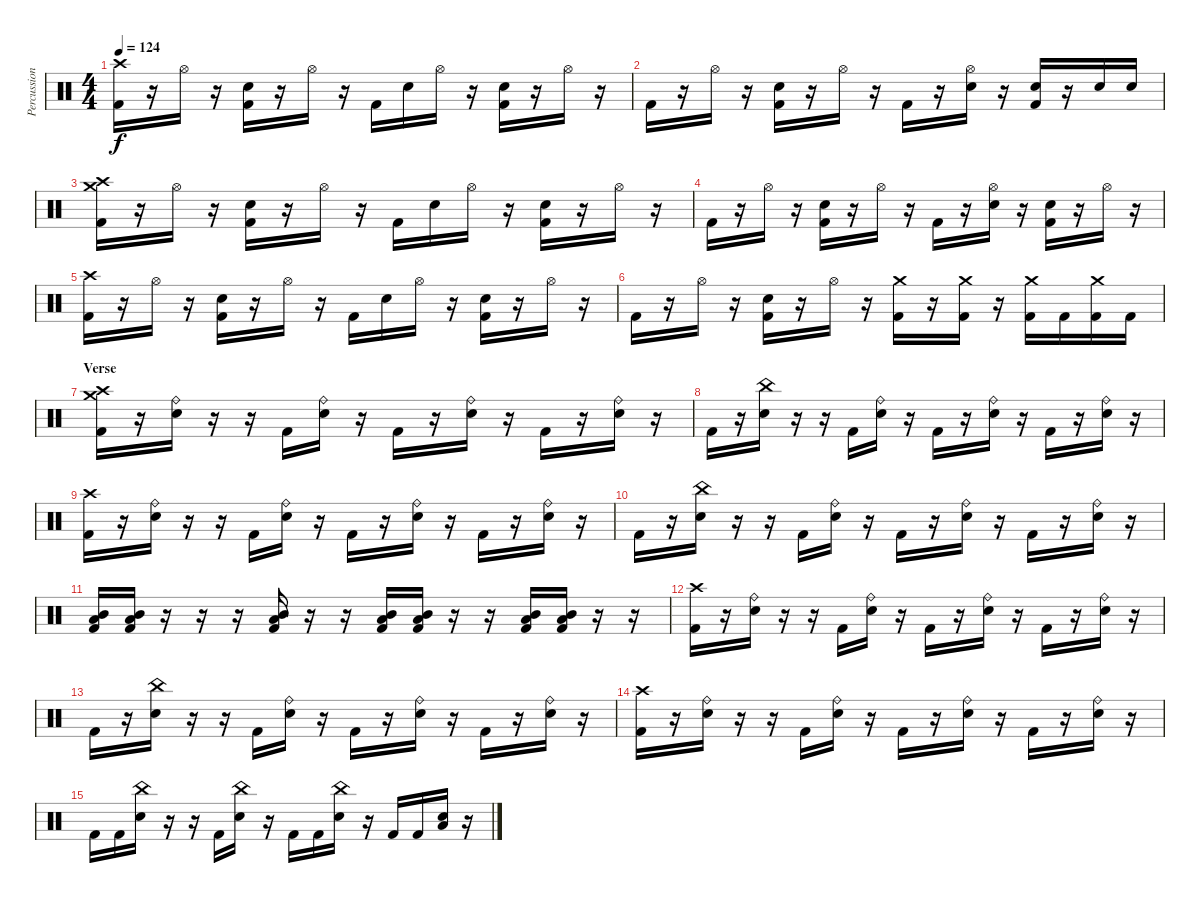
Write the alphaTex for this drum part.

\track ("Percussion" "Percussion") {instrument percussion}
\staff {score}
\articulation defaults
\ts (4 4)
\tempo 124
\clef neutral
\ks c
("Crash high (hit)" "Kick (hit) 2").16{dy f} r.16 "Hi-Hat (open)".16 r.16 ("Snare (hit) 2" "Kick (hit) 2").16 r.16 "Hi-Hat (open)".16 r.16 "Kick (hit) 2".16 "Snare (hit) 2".16 "Hi-Hat (open)".16 r.16 ("Snare (hit) 2" "Kick (hit) 2").16 r.16 "Hi-Hat (open)".16 r.16 |
"Kick (hit) 2".16 r.16 "Hi-Hat (open)".16 r.16 ("Snare (hit) 2" "Kick (hit) 2").16 r.16 "Hi-Hat (open)".16 r.16 "Kick (hit) 2".16 r.16 ("Hi-Hat (open)" "Snare (hit) 2").16 r.16 ("Snare (hit) 2" "Kick (hit) 2").16 r.16 "Snare (hit) 2".16 "Snare (hit) 2".16 |
("Crash high (hit)" "Crash medium (hit)" "Kick (hit) 2").16 r.16 "Hi-Hat (open)".16 r.16 ("Snare (hit) 2" "Kick (hit) 2").16 r.16 "Hi-Hat (open)".16 r.16 "Kick (hit) 2".16 "Snare (hit) 2".16 "Hi-Hat (open)".16 r.16 ("Snare (hit) 2" "Kick (hit) 2").16 r.16 "Hi-Hat (open)".16 r.16 |
"Kick (hit) 2".16 r.16 "Hi-Hat (open)".16 r.16 ("Snare (hit) 2" "Kick (hit) 2").16 r.16 "Hi-Hat (open)".16 r.16 "Kick (hit) 2".16 r.16 ("Hi-Hat (open)" "Snare (hit) 2").16 r.16 ("Snare (hit) 2" "Kick (hit) 2").16 r.16 "Hi-Hat (open)".16 r.16 |
("Crash high (hit)" "Kick (hit) 2").16 r.16 "Hi-Hat (open)".16 r.16 ("Snare (hit) 2" "Kick (hit) 2").16 r.16 "Hi-Hat (open)".16 r.16 "Kick (hit) 2".16 "Snare (hit) 2".16 "Hi-Hat (open)".16 r.16 ("Snare (hit) 2" "Kick (hit) 2").16 r.16 "Hi-Hat (open)".16 r.16 |
"Kick (hit) 2".16 r.16 "Hi-Hat (open)".16 r.16 ("Snare (hit) 2" "Kick (hit) 2").16 r.16 "Hi-Hat (open)".16 r.16 ("Crash medium (hit)" "Kick (hit) 2").16 r.16 ("Crash medium (hit)" "Kick (hit) 2").16 r.16 ("Crash medium (hit)" "Kick (hit) 2").16 "Kick (hit) 2".16 ("Crash medium (hit)" "Kick (hit) 2").16 "Kick (hit) 2".16 |
\section ("" "Verse")
("Crash medium (hit)" "Crash high (hit)" "Kick (hit) 2").16 r.16 ("Ride (bell)" "Snare (hit) 2").16 r.16 r.16 "Kick (hit) 2".16 ("Ride (bell)" "Snare (hit) 2").16 r.16 "Kick (hit) 2".16 r.16 ("Ride (bell)" "Snare (hit) 2").16 r.16 "Kick (hit) 2".16 r.16 ("Ride (bell)" "Snare (hit) 2").16 r.16 |
"Kick (hit) 2".16 r.16 ("China (hit)" "Snare (hit) 2").16 r.16 r.16 "Kick (hit) 2".16 ("Ride (bell)" "Snare (hit) 2").16 r.16 "Kick (hit) 2".16 r.16 ("Ride (bell)" "Snare (hit) 2").16 r.16 "Kick (hit) 2".16 r.16 ("Ride (bell)" "Snare (hit) 2").16 r.16 |
("Crash high (hit)" "Kick (hit) 2").16 r.16 ("Ride (bell)" "Snare (hit) 2").16 r.16 r.16 "Kick (hit) 2".16 ("Ride (bell)" "Snare (hit) 2").16 r.16 "Kick (hit) 2".16 r.16 ("Ride (bell)" "Snare (hit) 2").16 r.16 "Kick (hit) 2".16 r.16 ("Ride (bell)" "Snare (hit) 2").16 r.16 |
"Kick (hit) 2".16 r.16 ("China (hit)" "Snare (hit) 2").16 r.16 r.16 "Kick (hit) 2".16 ("Ride (bell)" "Snare (hit) 2").16 r.16 "Kick (hit) 2".16 r.16 ("Ride (bell)" "Snare (hit) 2").16 r.16 "Kick (hit) 2".16 r.16 ("Ride (bell)" "Snare (hit) 2").16 r.16 |
("Mid Tom (hit)" "Low Floor Tom (hit)" "Kick (hit) 2").16 ("Mid Tom (hit)" "Low Floor Tom (hit)" "Kick (hit) 2").16 r.16 r.16 r.16 ("Mid Tom (hit)" "Low Floor Tom (hit)" "Kick (hit) 2").16 r.16 r.16 ("Mid Tom (hit)" "Low Floor Tom (hit)" "Kick (hit) 2").16 ("Mid Tom (hit)" "Low Floor Tom (hit)" "Kick (hit) 2").16 r.16 r.16 ("Mid Tom (hit)" "Low Floor Tom (hit)" "Kick (hit) 2").16 ("Mid Tom (hit)" "Low Floor Tom (hit)" "Kick (hit) 2").16 r.16 r.16 |
("Crash high (hit)" "Kick (hit) 2").16 r.16 ("Ride (bell)" "Snare (hit) 2").16 r.16 r.16 "Kick (hit) 2".16 ("Ride (bell)" "Snare (hit) 2").16 r.16 "Kick (hit) 2".16 r.16 ("Ride (bell)" "Snare (hit) 2").16 r.16 "Kick (hit) 2".16 r.16 ("Ride (bell)" "Snare (hit) 2").16 r.16 |
"Kick (hit) 2".16 r.16 ("China (hit)" "Snare (hit) 2").16 r.16 r.16 "Kick (hit) 2".16 ("Ride (bell)" "Snare (hit) 2").16 r.16 "Kick (hit) 2".16 r.16 ("Ride (bell)" "Snare (hit) 2").16 r.16 "Kick (hit) 2".16 r.16 ("Ride (bell)" "Snare (hit) 2").16 r.16 |
("Crash high (hit)" "Kick (hit) 2").16 r.16 ("Ride (bell)" "Snare (hit) 2").16 r.16 r.16 "Kick (hit) 2".16 ("Ride (bell)" "Snare (hit) 2").16 r.16 "Kick (hit) 2".16 r.16 ("Ride (bell)" "Snare (hit) 2").16 r.16 "Kick (hit) 2".16 r.16 ("Ride (bell)" "Snare (hit) 2").16 r.16 |
"Kick (hit) 2".16{volume 16} "Kick (hit) 2".16 ("China (hit)" "Snare (hit) 2").16 r.16 r.16 "Kick (hit) 2".16 ("China (hit)" "Snare (hit) 2").16 r.16 "Kick (hit) 2".16 "Kick (hit) 2".16 ("China (hit)" "Snare (hit) 2").16 r.16 "Kick (hit) 2".16 "Kick (hit) 2".16 ("Snare (hit) 2" "Low Floor Tom (hit)").16 r.16
